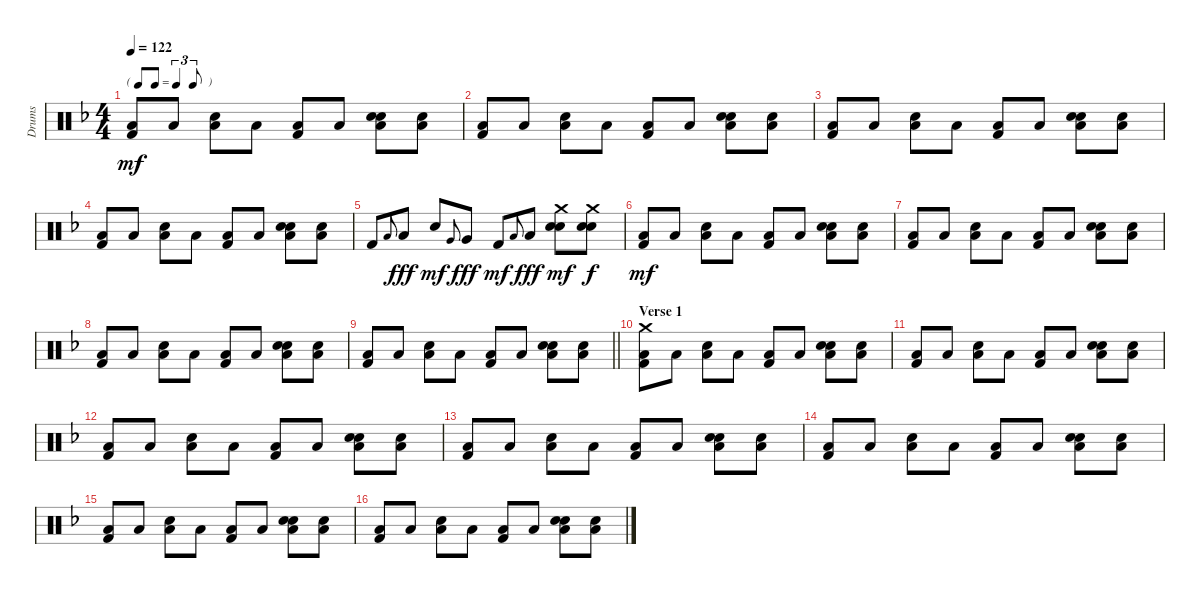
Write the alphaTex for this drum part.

\track ("Drums" "Drums") {instrument percussion}
\staff {score}
\articulation defaults
\ts (4 4)
\tf triplet8th
\tempo 122
\clef neutral
\ks dminor
("Low Floor Tom (hit)" "Kick (hit) 2").8{dy mf} "Low Floor Tom (hit)".8 ("Low Floor Tom (hit)" "Snare (hit) 2").8 "Low Floor Tom (hit)".8 ("Low Floor Tom (hit)" "Kick (hit) 2").8 "Low Floor Tom (hit)".8 ("Hand Clap (hit)" "Low Floor Tom (hit)" "Snare (hit) 2").8 ("Hand Clap (hit)" "Low Floor Tom (hit)").8 |
("Low Floor Tom (hit)" "Kick (hit) 2").8 "Low Floor Tom (hit)".8 ("Low Floor Tom (hit)" "Snare (hit) 2").8 "Low Floor Tom (hit)".8 ("Low Floor Tom (hit)" "Kick (hit) 2").8 "Low Floor Tom (hit)".8 ("Hand Clap (hit)" "Low Floor Tom (hit)" "Snare (hit) 2").8 ("Hand Clap (hit)" "Low Floor Tom (hit)").8 |
("Low Floor Tom (hit)" "Kick (hit) 2").8 "Low Floor Tom (hit)".8 ("Low Floor Tom (hit)" "Snare (hit) 2").8 "Low Floor Tom (hit)".8 ("Low Floor Tom (hit)" "Kick (hit) 2").8 "Low Floor Tom (hit)".8 ("Hand Clap (hit)" "Low Floor Tom (hit)" "Snare (hit) 2").8 ("Hand Clap (hit)" "Low Floor Tom (hit)").8 |
("Low Floor Tom (hit)" "Kick (hit) 2").8 "Low Floor Tom (hit)".8 ("Low Floor Tom (hit)" "Snare (hit) 2").8 "Low Floor Tom (hit)".8 ("Low Floor Tom (hit)" "Kick (hit) 2").8 "Low Floor Tom (hit)".8 ("Hand Clap (hit)" "Low Floor Tom (hit)" "Snare (hit) 2").8 ("Hand Clap (hit)" "Low Floor Tom (hit)").8 |
"Kick (hit) 2".8 "Low Tom (hit)".8{gr onbeat} "Low Tom (hit)".8{dy fff} "Snare (hit) 2".8{dy mf} "Very Low Tom (hit)".8{gr onbeat} "Very Low Tom (hit)".8{dy fff} "Kick (hit) 2".8{dy mf} "Low Floor Tom (hit)".8{gr onbeat} "Low Floor Tom (hit)".8{dy fff} ("Crash medium (hit)" "Hand Clap (hit)" "Snare (hit) 2").8{dy mf} ("Crash medium (hit)" "Hand Clap (hit)" "Snare (hit) 2").8{dy f} |
("Low Floor Tom (hit)" "Kick (hit) 2").8{dy mf} "Low Floor Tom (hit)".8 ("Low Floor Tom (hit)" "Snare (hit) 2").8 "Low Floor Tom (hit)".8 ("Low Floor Tom (hit)" "Kick (hit) 2").8 "Low Floor Tom (hit)".8 ("Hand Clap (hit)" "Low Floor Tom (hit)" "Snare (hit) 2").8 ("Hand Clap (hit)" "Low Floor Tom (hit)").8 |
("Low Floor Tom (hit)" "Kick (hit) 2").8 "Low Floor Tom (hit)".8 ("Low Floor Tom (hit)" "Snare (hit) 2").8 "Low Floor Tom (hit)".8 ("Low Floor Tom (hit)" "Kick (hit) 2").8 "Low Floor Tom (hit)".8 ("Hand Clap (hit)" "Low Floor Tom (hit)" "Snare (hit) 2").8 ("Hand Clap (hit)" "Low Floor Tom (hit)").8 |
("Low Floor Tom (hit)" "Kick (hit) 2").8 "Low Floor Tom (hit)".8 ("Low Floor Tom (hit)" "Snare (hit) 2").8 "Low Floor Tom (hit)".8 ("Low Floor Tom (hit)" "Kick (hit) 2").8 "Low Floor Tom (hit)".8 ("Hand Clap (hit)" "Low Floor Tom (hit)" "Snare (hit) 2").8 ("Hand Clap (hit)" "Low Floor Tom (hit)").8 |
\barLineRight lightlight
("Low Floor Tom (hit)" "Kick (hit) 2").8 "Low Floor Tom (hit)".8 ("Low Floor Tom (hit)" "Snare (hit) 2").8 "Low Floor Tom (hit)".8 ("Low Floor Tom (hit)" "Kick (hit) 2").8 "Low Floor Tom (hit)".8 ("Hand Clap (hit)" "Low Floor Tom (hit)" "Snare (hit) 2").8 ("Hand Clap (hit)" "Low Floor Tom (hit)").8 |
\section ("" "Verse 1")
("Crash medium (hit)" "Low Floor Tom (hit)" "Kick (hit) 2").8 "Low Floor Tom (hit)".8 ("Low Floor Tom (hit)" "Snare (hit) 2").8 "Low Floor Tom (hit)".8 ("Low Floor Tom (hit)" "Kick (hit) 2").8 "Low Floor Tom (hit)".8 ("Hand Clap (hit)" "Low Floor Tom (hit)" "Snare (hit) 2").8 ("Hand Clap (hit)" "Low Floor Tom (hit)").8 |
("Low Floor Tom (hit)" "Kick (hit) 2").8 "Low Floor Tom (hit)".8 ("Low Floor Tom (hit)" "Snare (hit) 2").8 "Low Floor Tom (hit)".8 ("Low Floor Tom (hit)" "Kick (hit) 2").8 "Low Floor Tom (hit)".8 ("Hand Clap (hit)" "Low Floor Tom (hit)" "Snare (hit) 2").8 ("Hand Clap (hit)" "Low Floor Tom (hit)").8 |
("Low Floor Tom (hit)" "Kick (hit) 2").8 "Low Floor Tom (hit)".8 ("Low Floor Tom (hit)" "Snare (hit) 2").8 "Low Floor Tom (hit)".8 ("Low Floor Tom (hit)" "Kick (hit) 2").8 "Low Floor Tom (hit)".8 ("Hand Clap (hit)" "Low Floor Tom (hit)" "Snare (hit) 2").8 ("Hand Clap (hit)" "Low Floor Tom (hit)").8 |
("Low Floor Tom (hit)" "Kick (hit) 2").8 "Low Floor Tom (hit)".8 ("Low Floor Tom (hit)" "Snare (hit) 2").8 "Low Floor Tom (hit)".8 ("Low Floor Tom (hit)" "Kick (hit) 2").8 "Low Floor Tom (hit)".8 ("Hand Clap (hit)" "Low Floor Tom (hit)" "Snare (hit) 2").8 ("Hand Clap (hit)" "Low Floor Tom (hit)").8 |
("Low Floor Tom (hit)" "Kick (hit) 2").8 "Low Floor Tom (hit)".8 ("Low Floor Tom (hit)" "Snare (hit) 2").8 "Low Floor Tom (hit)".8 ("Low Floor Tom (hit)" "Kick (hit) 2").8 "Low Floor Tom (hit)".8 ("Hand Clap (hit)" "Low Floor Tom (hit)" "Snare (hit) 2").8 ("Hand Clap (hit)" "Low Floor Tom (hit)").8 |
("Low Floor Tom (hit)" "Kick (hit) 2").8 "Low Floor Tom (hit)".8 ("Low Floor Tom (hit)" "Snare (hit) 2").8 "Low Floor Tom (hit)".8 ("Low Floor Tom (hit)" "Kick (hit) 2").8 "Low Floor Tom (hit)".8 ("Hand Clap (hit)" "Low Floor Tom (hit)" "Snare (hit) 2").8 ("Hand Clap (hit)" "Low Floor Tom (hit)").8 |
("Low Floor Tom (hit)" "Kick (hit) 2").8 "Low Floor Tom (hit)".8 ("Low Floor Tom (hit)" "Snare (hit) 2").8 "Low Floor Tom (hit)".8 ("Low Floor Tom (hit)" "Kick (hit) 2").8 "Low Floor Tom (hit)".8 ("Hand Clap (hit)" "Low Floor Tom (hit)" "Snare (hit) 2").8 ("Hand Clap (hit)" "Low Floor Tom (hit)").8
